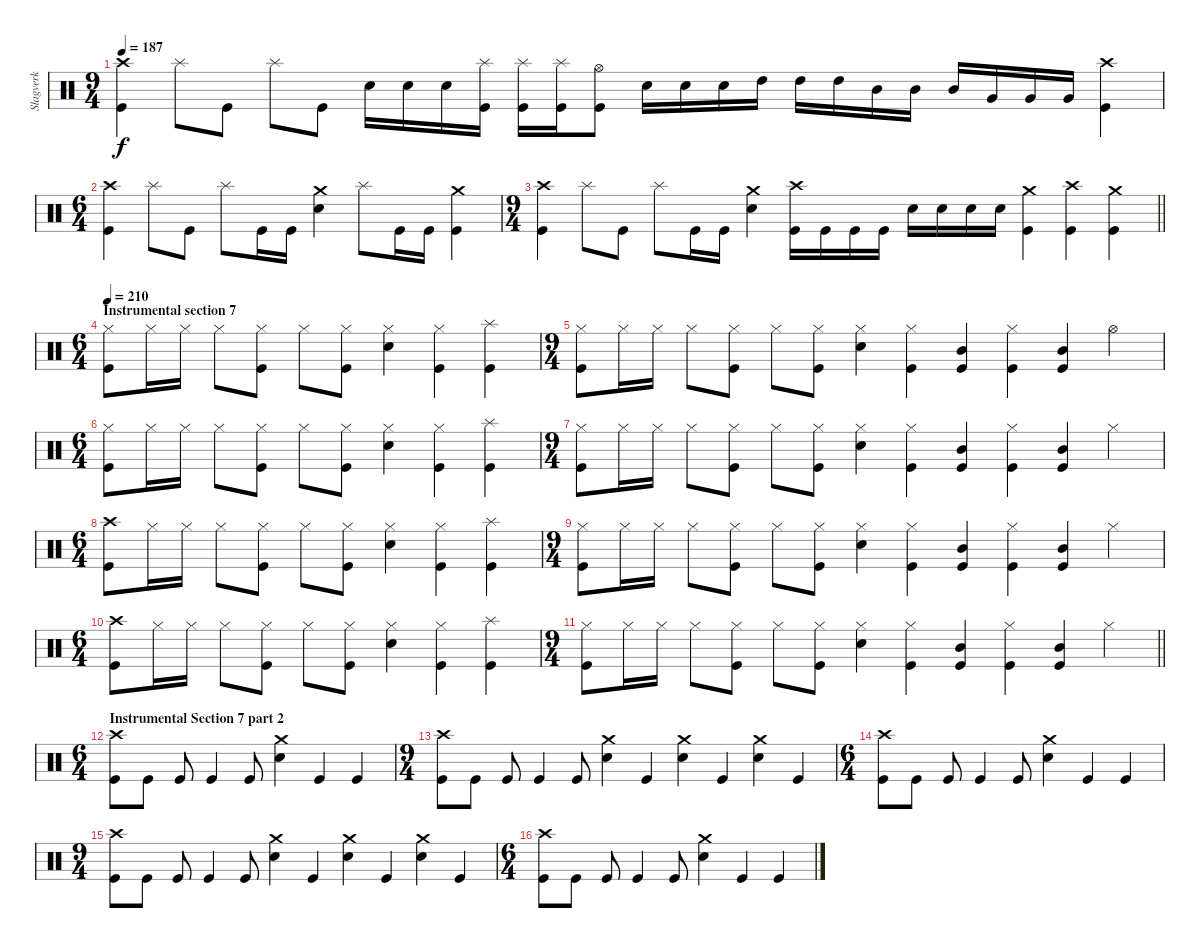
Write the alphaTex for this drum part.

\track ("Slagverk" "Slagverk") {instrument percussion}
\staff {score}
\articulation defaults
\ts (9 4)
\tempo 187
\clef neutral
\ks c
("Crash high (hit)" "Kick (hit)").4{dy f} "Splash (hit)".8 "Kick (hit)".8 "Splash (hit)".8 "Kick (hit)".8 "Electric Snare (hit)".16 "Electric Snare (hit)".16 "Electric Snare (hit)".16 ("Splash (hit)" "Kick (hit)").16 ("Splash (hit)" "Kick (hit)").16 ("Splash (hit)" "Kick (hit)").16 ("Hi-Hat (open)" "Kick (hit)").8 "Electric Snare (hit)".16 "Electric Snare (hit)".16 "Electric Snare (hit)".16 "High Tom (hit)".16 "High Tom (hit)".16 "High Tom (hit)".16 "Mid Tom (hit)".16 "Mid Tom (hit)".16 "Mid Tom (hit)".16 "Very Low Tom (hit)".16 "Very Low Tom (hit)".16 "Very Low Tom (hit)".16 ("Crash high (hit)" "Kick (hit)").4 |
\ts (6 4)
("Crash high (hit)" "Kick (hit)").4 "Splash (hit)".8 "Kick (hit)".8 "Splash (hit)".8 "Kick (hit)".16 "Kick (hit)".16 ("Crash medium (hit)" "Electric Snare (hit)").4 "Splash (hit)".8 "Kick (hit)".16 "Kick (hit)".16 ("Crash medium (hit)" "Kick (hit)").4 |
\ts (9 4)
\barLineRight lightlight
("Crash high (hit)" "Kick (hit)").4 "Splash (hit)".8 "Kick (hit)".8 "Splash (hit)".8 "Kick (hit)".16 "Kick (hit)".16 ("Crash medium (hit)" "Electric Snare (hit)").4 ("Crash high (hit)" "Kick (hit)").16 "Kick (hit)".16 "Kick (hit)".16 "Kick (hit)".16 "Electric Snare (hit)".16 "Electric Snare (hit)".16 "Electric Snare (hit)".16 "Electric Snare (hit)".16 ("Crash medium (hit)" "Kick (hit)").4 ("Crash high (hit)" "Kick (hit)").4 ("Crash medium (hit)" "Kick (hit)").4 |
\ts (6 4)
\section ("" "Instrumental section 7")
\tempo 210
("Hi-Hat (closed)" "Kick (hit)").8 "Hi-Hat (closed)".16 "Hi-Hat (closed)".16 "Hi-Hat (closed)".8 ("Hi-Hat (closed)" "Kick (hit)").8 "Hi-Hat (closed)".8 ("Hi-Hat (closed)" "Kick (hit)").8 ("Hi-Hat (closed)" "Electric Snare (hit)").4 ("Hi-Hat (closed)" "Kick (hit)").4 ("Splash (hit)" "Kick (hit)").4 |
\ts (9 4)
("Hi-Hat (closed)" "Kick (hit)").8 "Hi-Hat (closed)".16 "Hi-Hat (closed)".16 "Hi-Hat (closed)".8 ("Hi-Hat (closed)" "Kick (hit)").8 "Hi-Hat (closed)".8 ("Hi-Hat (closed)" "Kick (hit)").8 ("Hi-Hat (closed)" "Electric Snare (hit)").4 ("Hi-Hat (closed)" "Kick (hit)").4 ("Mid Tom (hit)" "Kick (hit)").4 ("Hi-Hat (closed)" "Kick (hit)").4 ("Mid Tom (hit)" "Kick (hit)").4 "Hi-Hat (open)".4 |
\ts (6 4)
("Hi-Hat (closed)" "Kick (hit)").8 "Hi-Hat (closed)".16 "Hi-Hat (closed)".16 "Hi-Hat (closed)".8 ("Hi-Hat (closed)" "Kick (hit)").8 "Hi-Hat (closed)".8 ("Hi-Hat (closed)" "Kick (hit)").8 ("Hi-Hat (closed)" "Electric Snare (hit)").4 ("Hi-Hat (closed)" "Kick (hit)").4 ("Splash (hit)" "Kick (hit)").4 |
\ts (9 4)
("Hi-Hat (closed)" "Kick (hit)").8 "Hi-Hat (closed)".16 "Hi-Hat (closed)".16 "Hi-Hat (closed)".8 ("Hi-Hat (closed)" "Kick (hit)").8 "Hi-Hat (closed)".8 ("Hi-Hat (closed)" "Kick (hit)").8 ("Hi-Hat (closed)" "Electric Snare (hit)").4 ("Hi-Hat (closed)" "Kick (hit)").4 ("Mid Tom (hit)" "Kick (hit)").4 ("Hi-Hat (closed)" "Kick (hit)").4 ("Mid Tom (hit)" "Kick (hit)").4 "Hi-Hat (closed)".4 |
\ts (6 4)
("Crash high (hit)" "Kick (hit)").8 "Hi-Hat (closed)".16 "Hi-Hat (closed)".16 "Hi-Hat (closed)".8 ("Hi-Hat (closed)" "Kick (hit)").8 "Hi-Hat (closed)".8 ("Hi-Hat (closed)" "Kick (hit)").8 ("Hi-Hat (closed)" "Electric Snare (hit)").4 ("Hi-Hat (closed)" "Kick (hit)").4 ("Splash (hit)" "Kick (hit)").4 |
\ts (9 4)
("Hi-Hat (closed)" "Kick (hit)").8 "Hi-Hat (closed)".16 "Hi-Hat (closed)".16 "Hi-Hat (closed)".8 ("Hi-Hat (closed)" "Kick (hit)").8 "Hi-Hat (closed)".8 ("Hi-Hat (closed)" "Kick (hit)").8 ("Hi-Hat (closed)" "Electric Snare (hit)").4 ("Hi-Hat (closed)" "Kick (hit)").4 ("Mid Tom (hit)" "Kick (hit)").4 ("Hi-Hat (closed)" "Kick (hit)").4 ("Mid Tom (hit)" "Kick (hit)").4 "Hi-Hat (closed)".4 |
\ts (6 4)
("Crash high (hit)" "Kick (hit)").8 "Hi-Hat (closed)".16 "Hi-Hat (closed)".16 "Hi-Hat (closed)".8 ("Hi-Hat (closed)" "Kick (hit)").8 "Hi-Hat (closed)".8 ("Hi-Hat (closed)" "Kick (hit)").8 ("Hi-Hat (closed)" "Electric Snare (hit)").4 ("Hi-Hat (closed)" "Kick (hit)").4 ("Splash (hit)" "Kick (hit)").4 |
\ts (9 4)
\barLineRight lightlight
("Hi-Hat (closed)" "Kick (hit)").8 "Hi-Hat (closed)".16 "Hi-Hat (closed)".16 "Hi-Hat (closed)".8 ("Hi-Hat (closed)" "Kick (hit)").8 "Hi-Hat (closed)".8 ("Hi-Hat (closed)" "Kick (hit)").8 ("Hi-Hat (closed)" "Electric Snare (hit)").4 ("Hi-Hat (closed)" "Kick (hit)").4 ("Mid Tom (hit)" "Kick (hit)").4 ("Hi-Hat (closed)" "Kick (hit)").4 ("Mid Tom (hit)" "Kick (hit)").4 "Hi-Hat (closed)".4 |
\ts (6 4)
\section ("" "Instrumental Section 7 part 2")
("Crash high (hit)" "Kick (hit)").8 "Kick (hit)".8 "Kick (hit)".8 "Kick (hit)".4 "Kick (hit)".8 ("Crash medium (hit)" "Electric Snare (hit)").4 "Kick (hit)".4 "Kick (hit)".4 |
\ts (9 4)
("Crash high (hit)" "Kick (hit)").8 "Kick (hit)".8 "Kick (hit)".8 "Kick (hit)".4 "Kick (hit)".8 ("Crash medium (hit)" "Electric Snare (hit)").4 "Kick (hit)".4 ("Crash medium (hit)" "Electric Snare (hit)").4 "Kick (hit)".4 ("Crash medium (hit)" "Electric Snare (hit)").4 "Kick (hit)".4 |
\ts (6 4)
("Crash high (hit)" "Kick (hit)").8 "Kick (hit)".8 "Kick (hit)".8 "Kick (hit)".4 "Kick (hit)".8 ("Crash medium (hit)" "Electric Snare (hit)").4 "Kick (hit)".4 "Kick (hit)".4 |
\ts (9 4)
("Crash high (hit)" "Kick (hit)").8 "Kick (hit)".8 "Kick (hit)".8 "Kick (hit)".4 "Kick (hit)".8 ("Crash medium (hit)" "Electric Snare (hit)").4 "Kick (hit)".4 ("Crash medium (hit)" "Electric Snare (hit)").4 "Kick (hit)".4 ("Crash medium (hit)" "Electric Snare (hit)").4 "Kick (hit)".4 |
\ts (6 4)
("Crash high (hit)" "Kick (hit)").8 "Kick (hit)".8 "Kick (hit)".8 "Kick (hit)".4 "Kick (hit)".8 ("Crash medium (hit)" "Electric Snare (hit)").4 "Kick (hit)".4 "Kick (hit)".4
